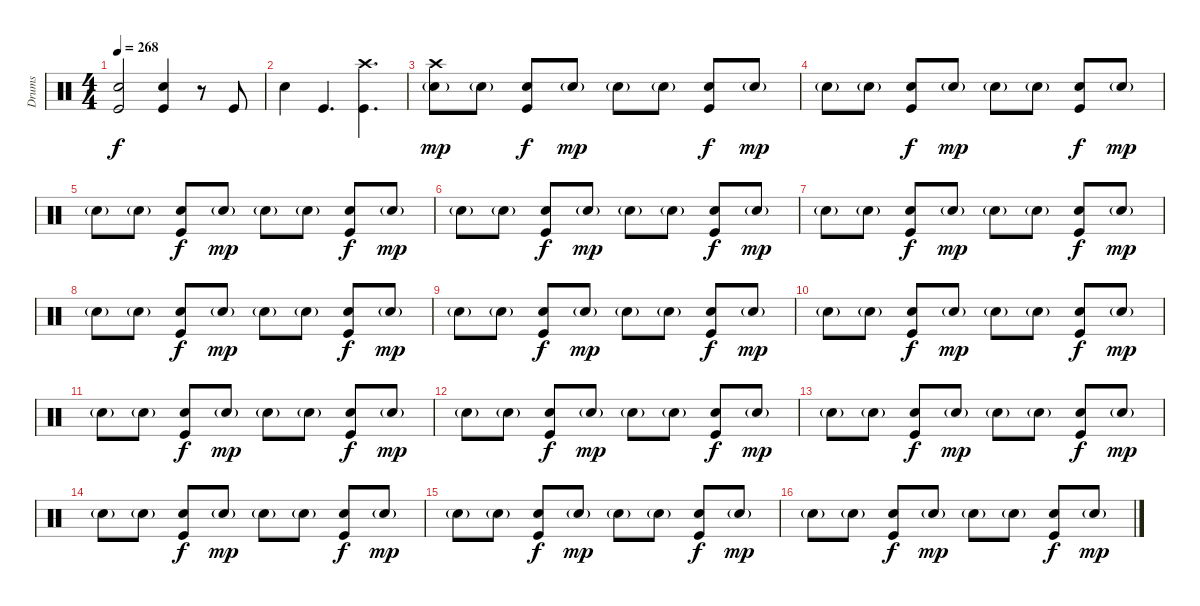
\track ("Drums" "Drums") {instrument percussion}
\staff {score}
\articulation defaults
\ts (4 4)
\tempo 268
\clef neutral
\ks c
("Electric Snare (hit)" "Kick (hit)").2{dy f} ("Electric Snare (hit)" "Kick (hit)").4 r.8 "Kick (hit)".8 |
"Electric Snare (hit)".4 "Kick (hit)".4{d} ("Crash high (hit)" "Kick (hit)").4{d} |
("Crash high (hit)" "Electric Snare (hit)"{g}).8{dy mp} "Electric Snare (hit)"{g}.8 ("Electric Snare (hit)" "Kick (hit)").8{dy f} "Electric Snare (hit)"{g}.8{dy mp} "Electric Snare (hit)"{g}.8 "Electric Snare (hit)"{g}.8 ("Electric Snare (hit)" "Kick (hit)").8{dy f} "Electric Snare (hit)"{g}.8{dy mp} |
"Electric Snare (hit)"{g}.8 "Electric Snare (hit)"{g}.8 ("Electric Snare (hit)" "Kick (hit)").8{dy f} "Electric Snare (hit)"{g}.8{dy mp} "Electric Snare (hit)"{g}.8 "Electric Snare (hit)"{g}.8 ("Electric Snare (hit)" "Kick (hit)").8{dy f} "Electric Snare (hit)"{g}.8{dy mp} |
"Electric Snare (hit)"{g}.8 "Electric Snare (hit)"{g}.8 ("Electric Snare (hit)" "Kick (hit)").8{dy f} "Electric Snare (hit)"{g}.8{dy mp} "Electric Snare (hit)"{g}.8 "Electric Snare (hit)"{g}.8 ("Electric Snare (hit)" "Kick (hit)").8{dy f} "Electric Snare (hit)"{g}.8{dy mp} |
"Electric Snare (hit)"{g}.8 "Electric Snare (hit)"{g}.8 ("Electric Snare (hit)" "Kick (hit)").8{dy f} "Electric Snare (hit)"{g}.8{dy mp} "Electric Snare (hit)"{g}.8 "Electric Snare (hit)"{g}.8 ("Electric Snare (hit)" "Kick (hit)").8{dy f} "Electric Snare (hit)"{g}.8{dy mp} |
"Electric Snare (hit)"{g}.8 "Electric Snare (hit)"{g}.8 ("Electric Snare (hit)" "Kick (hit)").8{dy f} "Electric Snare (hit)"{g}.8{dy mp} "Electric Snare (hit)"{g}.8 "Electric Snare (hit)"{g}.8 ("Electric Snare (hit)" "Kick (hit)").8{dy f} "Electric Snare (hit)"{g}.8{dy mp} |
"Electric Snare (hit)"{g}.8 "Electric Snare (hit)"{g}.8 ("Electric Snare (hit)" "Kick (hit)").8{dy f} "Electric Snare (hit)"{g}.8{dy mp} "Electric Snare (hit)"{g}.8 "Electric Snare (hit)"{g}.8 ("Electric Snare (hit)" "Kick (hit)").8{dy f} "Electric Snare (hit)"{g}.8{dy mp} |
"Electric Snare (hit)"{g}.8 "Electric Snare (hit)"{g}.8 ("Electric Snare (hit)" "Kick (hit)").8{dy f} "Electric Snare (hit)"{g}.8{dy mp} "Electric Snare (hit)"{g}.8 "Electric Snare (hit)"{g}.8 ("Electric Snare (hit)" "Kick (hit)").8{dy f} "Electric Snare (hit)"{g}.8{dy mp} |
"Electric Snare (hit)"{g}.8 "Electric Snare (hit)"{g}.8 ("Electric Snare (hit)" "Kick (hit)").8{dy f} "Electric Snare (hit)"{g}.8{dy mp} "Electric Snare (hit)"{g}.8 "Electric Snare (hit)"{g}.8 ("Electric Snare (hit)" "Kick (hit)").8{dy f} "Electric Snare (hit)"{g}.8{dy mp} |
"Electric Snare (hit)"{g}.8 "Electric Snare (hit)"{g}.8 ("Electric Snare (hit)" "Kick (hit)").8{dy f} "Electric Snare (hit)"{g}.8{dy mp} "Electric Snare (hit)"{g}.8 "Electric Snare (hit)"{g}.8 ("Electric Snare (hit)" "Kick (hit)").8{dy f} "Electric Snare (hit)"{g}.8{dy mp} |
"Electric Snare (hit)"{g}.8 "Electric Snare (hit)"{g}.8 ("Electric Snare (hit)" "Kick (hit)").8{dy f} "Electric Snare (hit)"{g}.8{dy mp} "Electric Snare (hit)"{g}.8 "Electric Snare (hit)"{g}.8 ("Electric Snare (hit)" "Kick (hit)").8{dy f} "Electric Snare (hit)"{g}.8{dy mp} |
"Electric Snare (hit)"{g}.8 "Electric Snare (hit)"{g}.8 ("Electric Snare (hit)" "Kick (hit)").8{dy f} "Electric Snare (hit)"{g}.8{dy mp} "Electric Snare (hit)"{g}.8 "Electric Snare (hit)"{g}.8 ("Electric Snare (hit)" "Kick (hit)").8{dy f} "Electric Snare (hit)"{g}.8{dy mp} |
"Electric Snare (hit)"{g}.8 "Electric Snare (hit)"{g}.8 ("Electric Snare (hit)" "Kick (hit)").8{dy f} "Electric Snare (hit)"{g}.8{dy mp} "Electric Snare (hit)"{g}.8 "Electric Snare (hit)"{g}.8 ("Electric Snare (hit)" "Kick (hit)").8{dy f} "Electric Snare (hit)"{g}.8{dy mp} |
"Electric Snare (hit)"{g}.8 "Electric Snare (hit)"{g}.8 ("Electric Snare (hit)" "Kick (hit)").8{dy f} "Electric Snare (hit)"{g}.8{dy mp} "Electric Snare (hit)"{g}.8 "Electric Snare (hit)"{g}.8 ("Electric Snare (hit)" "Kick (hit)").8{dy f} "Electric Snare (hit)"{g}.8{dy mp} |
"Electric Snare (hit)"{g}.8 "Electric Snare (hit)"{g}.8 ("Electric Snare (hit)" "Kick (hit)").8{dy f} "Electric Snare (hit)"{g}.8{dy mp} "Electric Snare (hit)"{g}.8 "Electric Snare (hit)"{g}.8 ("Electric Snare (hit)" "Kick (hit)").8{dy f} "Electric Snare (hit)"{g}.8{dy mp}
